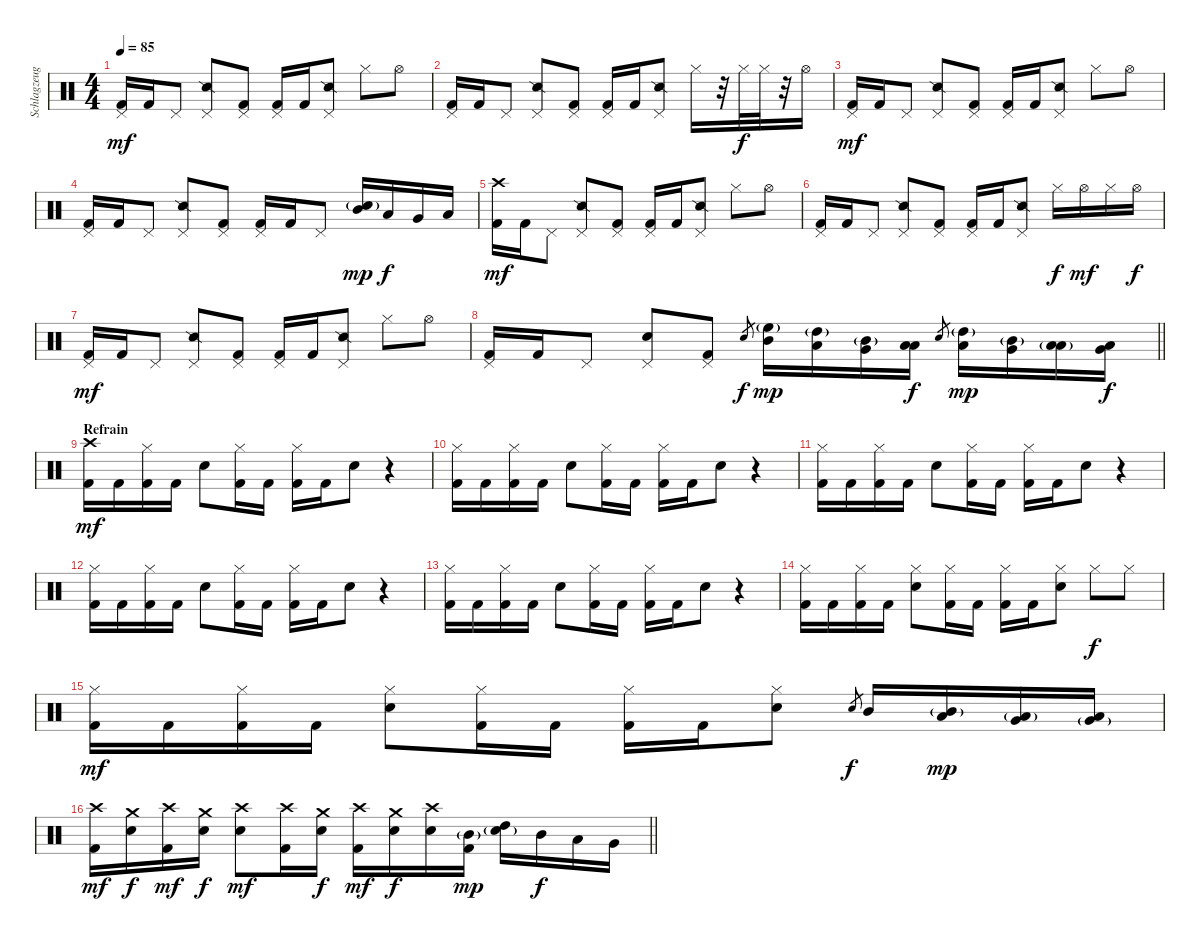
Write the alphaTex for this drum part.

\track ("Schlagzeug" "Schlagzeug") {instrument percussion}
\staff {score}
\articulation defaults
\ts (4 4)
\tempo 85
\clef neutral
\ks c
("Pedal Hi-Hat (hit)" "Kick (hit) 2").16{dy mf} "Kick (hit) 2".16 "Pedal Hi-Hat (hit)".8 ("Pedal Hi-Hat (hit)" "Snare (side stick) 2").8 ("Pedal Hi-Hat (hit)" "Kick (hit) 2").8 ("Pedal Hi-Hat (hit)" "Kick (hit) 2").16 "Kick (hit) 2".16 ("Pedal Hi-Hat (hit)" "Snare (side stick) 2").8 "Hi-Hat (closed)".8 "Hi-Hat (open)".8 |
("Pedal Hi-Hat (hit)" "Kick (hit) 2").16 "Kick (hit) 2".16 "Pedal Hi-Hat (hit)".8 ("Pedal Hi-Hat (hit)" "Snare (side stick) 2").8 ("Pedal Hi-Hat (hit)" "Kick (hit) 2").8 ("Pedal Hi-Hat (hit)" "Kick (hit) 2").16 "Kick (hit) 2".16 ("Pedal Hi-Hat (hit)" "Snare (side stick) 2").8 "Hi-Hat (closed)".16 r.32 "Hi-Hat (closed)".32{dy f} "Hi-Hat (closed)".32 r.32 "Hi-Hat (open)".16 |
("Pedal Hi-Hat (hit)" "Kick (hit) 2").16{dy mf} "Kick (hit) 2".16 "Pedal Hi-Hat (hit)".8 ("Pedal Hi-Hat (hit)" "Snare (side stick) 2").8 ("Pedal Hi-Hat (hit)" "Kick (hit) 2").8 ("Pedal Hi-Hat (hit)" "Kick (hit) 2").16 "Kick (hit) 2".16 ("Pedal Hi-Hat (hit)" "Snare (side stick) 2").8 "Hi-Hat (closed)".8 "Hi-Hat (open)".8 |
("Pedal Hi-Hat (hit)" "Kick (hit) 2").16 "Kick (hit) 2".16 "Pedal Hi-Hat (hit)".8 ("Pedal Hi-Hat (hit)" "Snare (side stick) 2").8 ("Pedal Hi-Hat (hit)" "Kick (hit) 2").8 ("Pedal Hi-Hat (hit)" "Kick (hit) 2").16 "Kick (hit) 2".16 "Pedal Hi-Hat (hit)".8 ("Snare (hit) 2"{g} "Mid Tom (hit)").16{dy mp} "Low Tom (hit)".16{dy f} "Very Low Tom (hit)".16 "Low Floor Tom (hit)".16 |
("Crash high (hit)" "Kick (hit) 2").16{dy mf} "Kick (hit) 2".16 "Pedal Hi-Hat (hit)".8 ("Pedal Hi-Hat (hit)" "Snare (side stick) 2").8 ("Pedal Hi-Hat (hit)" "Kick (hit) 2").8 ("Pedal Hi-Hat (hit)" "Kick (hit) 2").16 "Kick (hit) 2".16 ("Pedal Hi-Hat (hit)" "Snare (side stick) 2").8 "Hi-Hat (closed)".8 "Hi-Hat (open)".8 |
("Pedal Hi-Hat (hit)" "Kick (hit) 2").16 "Kick (hit) 2".16 "Pedal Hi-Hat (hit)".8 ("Pedal Hi-Hat (hit)" "Snare (side stick) 2").8 ("Pedal Hi-Hat (hit)" "Kick (hit) 2").8 ("Pedal Hi-Hat (hit)" "Kick (hit) 2").16 "Kick (hit) 2".16 ("Pedal Hi-Hat (hit)" "Snare (side stick) 2").8 "Hi-Hat (closed)".16{dy f} "Hi-Hat (open)".16{dy mf} "Hi-Hat (closed)".16 "Hi-Hat (open)".16{dy f} |
("Pedal Hi-Hat (hit)" "Kick (hit) 2").16{dy mf} "Kick (hit) 2".16 "Pedal Hi-Hat (hit)".8 ("Pedal Hi-Hat (hit)" "Snare (side stick) 2").8 ("Pedal Hi-Hat (hit)" "Kick (hit) 2").8 ("Pedal Hi-Hat (hit)" "Kick (hit) 2").16 "Kick (hit) 2".16 ("Pedal Hi-Hat (hit)" "Snare (side stick) 2").8 "Hi-Hat (closed)".8 "Hi-Hat (open)".8 |
\barLineRight lightlight
("Pedal Hi-Hat (hit)" "Kick (hit) 2").16 "Kick (hit) 2".16 "Pedal Hi-Hat (hit)".8 ("Pedal Hi-Hat (hit)" "Snare (hit) 2").8 ("Pedal Hi-Hat (hit)" "Kick (hit) 2").8 "Snare (hit) 2".8{gr dy f} ("High Floor Tom (hit)"{g} "Mid Tom (hit)").16{dy mp} ("High Tom (hit)"{g} "Low Tom (hit)").16 ("Mid Tom (hit)"{g} "Very Low Tom (hit)").16 ("Low Tom (hit)" "Low Floor Tom (hit)").16{dy f} "Snare (hit) 2".8{gr} ("High Tom (hit)"{g} "Low Tom (hit)").16{dy mp} ("Mid Tom (hit)"{g} "Very Low Tom (hit)").16 ("Low Tom (hit)"{g} "Low Floor Tom (hit)").16 ("Very Low Tom (hit)" "Low Floor Tom (hit)").16{dy f} |
\section ("" "Refrain")
("Crash high (hit)" "Kick (hit) 2").16{dy mf} "Kick (hit) 2".16 ("Hi-Hat (closed)" "Kick (hit) 2").16 "Kick (hit) 2".16 "Snare (hit) 2".8 ("Hi-Hat (closed)" "Kick (hit) 2").16 "Kick (hit) 2".16 ("Hi-Hat (closed)" "Kick (hit) 2").16 "Kick (hit) 2".16 "Snare (hit) 2".8 r.4 |
("Hi-Hat (closed)" "Kick (hit) 2").16 "Kick (hit) 2".16 ("Hi-Hat (closed)" "Kick (hit) 2").16 "Kick (hit) 2".16 "Snare (hit) 2".8 ("Hi-Hat (closed)" "Kick (hit) 2").16 "Kick (hit) 2".16 ("Hi-Hat (closed)" "Kick (hit) 2").16 "Kick (hit) 2".16 "Snare (hit) 2".8 r.4 |
("Hi-Hat (closed)" "Kick (hit) 2").16 "Kick (hit) 2".16 ("Hi-Hat (closed)" "Kick (hit) 2").16 "Kick (hit) 2".16 "Snare (hit) 2".8 ("Hi-Hat (closed)" "Kick (hit) 2").16 "Kick (hit) 2".16 ("Hi-Hat (closed)" "Kick (hit) 2").16 "Kick (hit) 2".16 "Snare (hit) 2".8 r.4 |
("Hi-Hat (closed)" "Kick (hit) 2").16 "Kick (hit) 2".16 ("Hi-Hat (closed)" "Kick (hit) 2").16 "Kick (hit) 2".16 "Snare (hit) 2".8 ("Hi-Hat (closed)" "Kick (hit) 2").16 "Kick (hit) 2".16 ("Hi-Hat (closed)" "Kick (hit) 2").16 "Kick (hit) 2".16 "Snare (hit) 2".8 r.4 |
("Hi-Hat (closed)" "Kick (hit) 2").16 "Kick (hit) 2".16 ("Hi-Hat (closed)" "Kick (hit) 2").16 "Kick (hit) 2".16 "Snare (hit) 2".8 ("Hi-Hat (closed)" "Kick (hit) 2").16 "Kick (hit) 2".16 ("Hi-Hat (closed)" "Kick (hit) 2").16 "Kick (hit) 2".16 "Snare (hit) 2".8 r.4 |
("Hi-Hat (closed)" "Kick (hit) 2").16 "Kick (hit) 2".16 ("Hi-Hat (closed)" "Kick (hit) 2").16 "Kick (hit) 2".16 ("Hi-Hat (closed)" "Snare (hit) 2").8 ("Hi-Hat (closed)" "Kick (hit) 2").16 "Kick (hit) 2".16 ("Hi-Hat (closed)" "Kick (hit) 2").16 "Kick (hit) 2".16 ("Hi-Hat (closed)" "Snare (hit) 2").8 "Hi-Hat (closed)".8{dy f} "Hi-Hat (closed)".8 |
("Hi-Hat (closed)" "Kick (hit) 2").16{dy mf} "Kick (hit) 2".16 ("Hi-Hat (closed)" "Kick (hit) 2").16 "Kick (hit) 2".16 ("Hi-Hat (closed)" "Snare (hit) 2").8 ("Hi-Hat (closed)" "Kick (hit) 2").16 "Kick (hit) 2".16 ("Hi-Hat (closed)" "Kick (hit) 2").16 "Kick (hit) 2".16 ("Hi-Hat (closed)" "Snare (hit) 2").8 "Snare (hit) 2".8{gr dy f} "Mid Tom (hit)".16 ("Mid Tom (hit)"{g} "Low Tom (hit)").16{dy mp} ("Low Tom (hit)"{g} "Very Low Tom (hit)").16 ("Very Low Tom (hit)"{g} "Low Floor Tom (hit)").16 |
\barLineRight lightlight
("Crash high (hit)" "Kick (hit) 2").16{dy mf} ("Crash medium (hit)" "Snare (hit) 2").16{dy f} ("Crash high (hit)" "Kick (hit) 2").16{dy mf} ("Crash medium (hit)" "Snare (hit) 2").16{dy f} ("Crash high (hit)" "Snare (hit) 2").8{dy mf} ("Crash high (hit)" "Kick (hit) 2").16 ("Crash medium (hit)" "Snare (hit) 2").16{dy f} ("Crash high (hit)" "Kick (hit) 2").16{dy mf} ("Crash medium (hit)" "Snare (hit) 2").16{dy f} ("Crash high (hit)" "Snare (hit) 2").16 ("Mid Tom (hit)"{g} "Kick (hit) 2").16{dy mp} ("Snare (hit) 2"{g} "High Tom (hit)").16 "Mid Tom (hit)".16{dy f} "Low Tom (hit)".16 "Very Low Tom (hit)".16
